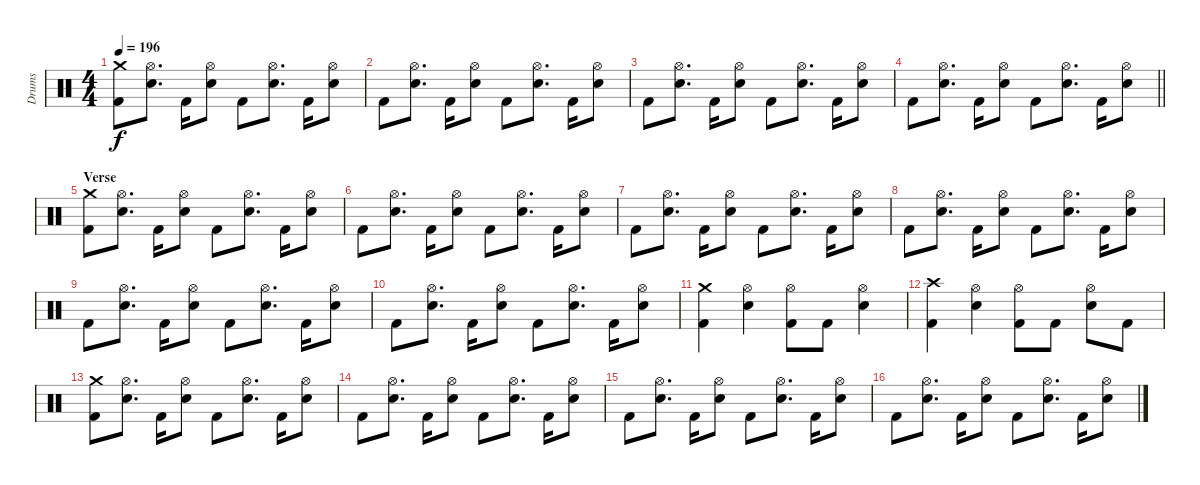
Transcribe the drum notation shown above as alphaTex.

\track ("Drums" "Drums") {instrument percussion}
\staff {score}
\articulation defaults
\ts (4 4)
\tempo 196
\clef neutral
\ks c
("Crash medium (hit)" "Kick (hit) 2").8{dy f} ("Hi-Hat (open)" "Electric Snare (hit)").8{d} "Kick (hit) 2".16 ("Hi-Hat (open)" "Electric Snare (hit)").8 "Kick (hit) 2".8 ("Hi-Hat (open)" "Electric Snare (hit)").8{d} "Kick (hit) 2".16 ("Hi-Hat (open)" "Electric Snare (hit)").8 |
"Kick (hit) 2".8 ("Hi-Hat (open)" "Electric Snare (hit)").8{d} "Kick (hit) 2".16 ("Hi-Hat (open)" "Electric Snare (hit)").8 "Kick (hit) 2".8 ("Hi-Hat (open)" "Electric Snare (hit)").8{d} "Kick (hit) 2".16 ("Hi-Hat (open)" "Electric Snare (hit)").8 |
"Kick (hit) 2".8 ("Hi-Hat (open)" "Electric Snare (hit)").8{d} "Kick (hit) 2".16 ("Hi-Hat (open)" "Electric Snare (hit)").8 "Kick (hit) 2".8 ("Hi-Hat (open)" "Electric Snare (hit)").8{d} "Kick (hit) 2".16 ("Hi-Hat (open)" "Electric Snare (hit)").8 |
\barLineRight lightlight "Kick (hit) 2".8
("Hi-Hat (open)" "Electric Snare (hit)").8{d} "Kick (hit) 2".16 ("Hi-Hat (open)" "Electric Snare (hit)").8 "Kick (hit) 2".8 ("Hi-Hat (open)" "Electric Snare (hit)").8{d} "Kick (hit) 2".16 ("Hi-Hat (open)" "Electric Snare (hit)").8 |
\section ("" "Verse")
("Crash medium (hit)" "Kick (hit) 2").8 ("Hi-Hat (open)" "Electric Snare (hit)").8{d} "Kick (hit) 2".16 ("Hi-Hat (open)" "Electric Snare (hit)").8 "Kick (hit) 2".8 ("Hi-Hat (open)" "Electric Snare (hit)").8{d} "Kick (hit) 2".16 ("Hi-Hat (open)" "Electric Snare (hit)").8 |
"Kick (hit) 2".8 ("Hi-Hat (open)" "Electric Snare (hit)").8{d} "Kick (hit) 2".16 ("Hi-Hat (open)" "Electric Snare (hit)").8 "Kick (hit) 2".8 ("Hi-Hat (open)" "Electric Snare (hit)").8{d} "Kick (hit) 2".16 ("Hi-Hat (open)" "Electric Snare (hit)").8 |
"Kick (hit) 2".8 ("Hi-Hat (open)" "Electric Snare (hit)").8{d} "Kick (hit) 2".16 ("Hi-Hat (open)" "Electric Snare (hit)").8 "Kick (hit) 2".8 ("Hi-Hat (open)" "Electric Snare (hit)").8{d} "Kick (hit) 2".16 ("Hi-Hat (open)" "Electric Snare (hit)").8 |
"Kick (hit) 2".8 ("Hi-Hat (open)" "Electric Snare (hit)").8{d} "Kick (hit) 2".16 ("Hi-Hat (open)" "Electric Snare (hit)").8 "Kick (hit) 2".8 ("Hi-Hat (open)" "Electric Snare (hit)").8{d} "Kick (hit) 2".16 ("Hi-Hat (open)" "Electric Snare (hit)").8 |
"Kick (hit) 2".8 ("Hi-Hat (open)" "Electric Snare (hit)").8{d} "Kick (hit) 2".16 ("Hi-Hat (open)" "Electric Snare (hit)").8 "Kick (hit) 2".8 ("Hi-Hat (open)" "Electric Snare (hit)").8{d} "Kick (hit) 2".16 ("Hi-Hat (open)" "Electric Snare (hit)").8 |
"Kick (hit) 2".8 ("Hi-Hat (open)" "Electric Snare (hit)").8{d} "Kick (hit) 2".16 ("Hi-Hat (open)" "Electric Snare (hit)").8 "Kick (hit) 2".8 ("Hi-Hat (open)" "Electric Snare (hit)").8{d} "Kick (hit) 2".16 ("Hi-Hat (open)" "Electric Snare (hit)").8 |
("Crash medium (hit)" "Kick (hit) 2").4 ("Hi-Hat (open)" "Electric Snare (hit)").4 ("Hi-Hat (open)" "Kick (hit) 2").8 "Kick (hit) 2".8 ("Hi-Hat (open)" "Electric Snare (hit)").4 |
("Crash high (hit)" "Kick (hit) 2").4 ("Hi-Hat (open)" "Electric Snare (hit)").4 ("Hi-Hat (open)" "Kick (hit) 2").8 "Kick (hit) 2".8 ("Hi-Hat (open)" "Electric Snare (hit)").8 "Kick (hit) 2".8 |
("Crash medium (hit)" "Kick (hit) 2").8 ("Hi-Hat (open)" "Electric Snare (hit)").8{d} "Kick (hit) 2".16 ("Hi-Hat (open)" "Electric Snare (hit)").8 "Kick (hit) 2".8 ("Hi-Hat (open)" "Electric Snare (hit)").8{d} "Kick (hit) 2".16 ("Hi-Hat (open)" "Electric Snare (hit)").8 |
"Kick (hit) 2".8 ("Hi-Hat (open)" "Electric Snare (hit)").8{d} "Kick (hit) 2".16 ("Hi-Hat (open)" "Electric Snare (hit)").8 "Kick (hit) 2".8 ("Hi-Hat (open)" "Electric Snare (hit)").8{d} "Kick (hit) 2".16 ("Hi-Hat (open)" "Electric Snare (hit)").8 |
"Kick (hit) 2".8 ("Hi-Hat (open)" "Electric Snare (hit)").8{d} "Kick (hit) 2".16 ("Hi-Hat (open)" "Electric Snare (hit)").8 "Kick (hit) 2".8 ("Hi-Hat (open)" "Electric Snare (hit)").8{d} "Kick (hit) 2".16 ("Hi-Hat (open)" "Electric Snare (hit)").8 |
"Kick (hit) 2".8 ("Hi-Hat (open)" "Electric Snare (hit)").8{d} "Kick (hit) 2".16 ("Hi-Hat (open)" "Electric Snare (hit)").8 "Kick (hit) 2".8 ("Hi-Hat (open)" "Electric Snare (hit)").8{d} "Kick (hit) 2".16 ("Hi-Hat (open)" "Electric Snare (hit)").8
